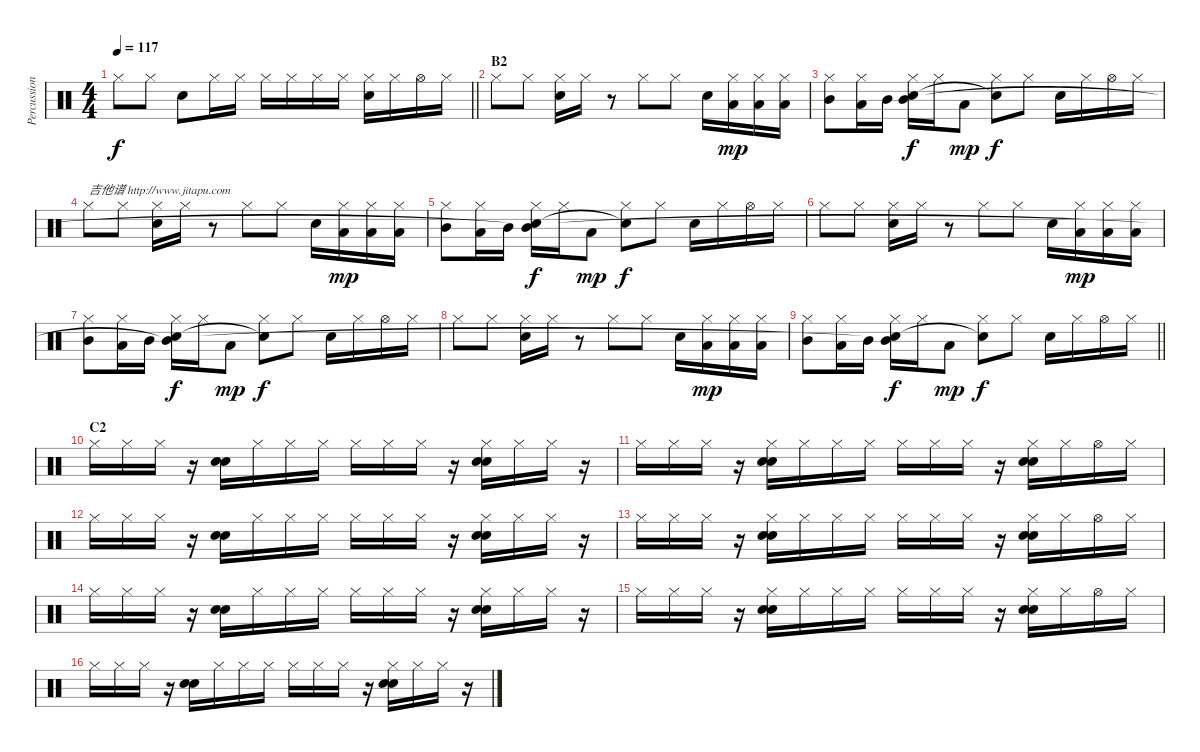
\track ("Percussions" "Percussion") {instrument percussion}
\staff {score}
\articulation defaults
\ts (4 4)
\tempo 117
\clef neutral
\barLineRight lightlight
\ks c "Hi-Hat (closed)".8{dy f} "Hi-Hat (closed)".8 "Electric Snare (hit)".8 "Hi-Hat (closed)".16 "Hi-Hat (closed)".16 "Hi-Hat (closed)".16 "Hi-Hat (closed)".16 "Hi-Hat (closed)".16 "Hi-Hat (closed)".16
("Hi-Hat (closed)" "Electric Snare (hit)").16 "Hi-Hat (closed)".16 "Hi-Hat (open)".16 "Hi-Hat (closed)".16 |
\section ("" "B2")
"Hi-Hat (closed)".8 "Hi-Hat (closed)".8 ("Hi-Hat (closed)" "Electric Snare (hit)").16 "Hi-Hat (closed)".16 r.8 "Hi-Hat (closed)".8 "Hi-Hat (closed)".8 "Electric Snare (hit)".16 ("Hi-Hat (closed)" "Low Tom (hit)").16{dy mp} ("Hi-Hat (closed)" "Low Tom (hit)").16 ("Hi-Hat (closed)" "Low Tom (hit)").16 |
("Hi-Hat (closed)" "Mid Tom (hit)").8 ("Hi-Hat (closed)" "Low Tom (hit)").16 "Mid Tom (hit)".16 ("Hi-Hat (closed)" "Electric Snare (hit)" "Mid Tom (hit)").16{dy f} "Hi-Hat (closed)".16 "Low Tom (hit)".8{dy mp} ("Hi-Hat (closed)" "Snare (hit)"{t}).8{dy f} "Hi-Hat (closed)".8 "Electric Snare (hit)".16 "Hi-Hat (closed)".16 "Hi-Hat (open)".16 "Hi-Hat (closed)".16 |
"Hi-Hat (closed)".8{txt "吉他谱 http://www.jitapu.com"} "Hi-Hat (closed)".8 ("Hi-Hat (closed)" "Electric Snare (hit)").16 "Hi-Hat (closed)".16 r.8 "Hi-Hat (closed)".8 "Hi-Hat (closed)".8 "Electric Snare (hit)".16 ("Hi-Hat (closed)" "Low Tom (hit)").16{dy mp} ("Hi-Hat (closed)" "Low Tom (hit)").16 ("Hi-Hat (closed)" "Low Tom (hit)").16 |
("Hi-Hat (closed)" "Mid Tom (hit)").8 ("Hi-Hat (closed)" "Low Tom (hit)").16 "Mid Tom (hit)".16 ("Hi-Hat (closed)" "Electric Snare (hit)" "Mid Tom (hit)"{t}).16{dy f} "Hi-Hat (closed)".16 "Low Tom (hit)".8{dy mp} ("Hi-Hat (closed)" "Snare (hit)"{t}).8{dy f} "Hi-Hat (closed)".8 "Electric Snare (hit)".16 "Hi-Hat (closed)".16 "Hi-Hat (open)".16 "Hi-Hat (closed)".16 |
"Hi-Hat (closed)".8 "Hi-Hat (closed)".8 ("Hi-Hat (closed)" "Electric Snare (hit)").16 "Hi-Hat (closed)".16 r.8 "Hi-Hat (closed)".8 "Hi-Hat (closed)".8 "Electric Snare (hit)".16 ("Hi-Hat (closed)" "Low Tom (hit)").16{dy mp} ("Hi-Hat (closed)" "Low Tom (hit)").16 ("Hi-Hat (closed)" "Low Tom (hit)").16 |
("Hi-Hat (closed)" "Mid Tom (hit)").8 ("Hi-Hat (closed)" "Low Tom (hit)").16 "Mid Tom (hit)".16 ("Hi-Hat (closed)" "Electric Snare (hit)" "Mid Tom (hit)"{t}).16{dy f} "Hi-Hat (closed)".16 "Low Tom (hit)".8{dy mp} ("Hi-Hat (closed)" "Snare (hit)"{t}).8{dy f} "Hi-Hat (closed)".8 "Electric Snare (hit)".16 "Hi-Hat (closed)".16 "Hi-Hat (open)".16 "Hi-Hat (closed)".16 |
"Hi-Hat (closed)".8 "Hi-Hat (closed)".8 ("Hi-Hat (closed)" "Electric Snare (hit)").16 "Hi-Hat (closed)".16 r.8 "Hi-Hat (closed)".8 "Hi-Hat (closed)".8 "Electric Snare (hit)".16 ("Hi-Hat (closed)" "Low Tom (hit)").16{dy mp} ("Hi-Hat (closed)" "Low Tom (hit)").16 ("Hi-Hat (closed)" "Low Tom (hit)").16 |
\barLineRight lightlight
("Hi-Hat (closed)" "Mid Tom (hit)").8 ("Hi-Hat (closed)" "Low Tom (hit)").16 "Mid Tom (hit)".16 ("Hi-Hat (closed)" "Electric Snare (hit)" "Mid Tom (hit)"{t}).16{dy f} "Hi-Hat (closed)".16 "Low Tom (hit)".8{dy mp} ("Hi-Hat (closed)" "Snare (hit)"{t}).8{dy f} "Hi-Hat (closed)".8 "Electric Snare (hit)".16 "Hi-Hat (closed)".16 "Hi-Hat (open)".16 "Hi-Hat (closed)".16 |
\section ("" "C2")
"Hi-Hat (closed)".16 "Hi-Hat (closed)".16 "Hi-Hat (closed)".16 r.16 ("Electric Snare (hit)" "Hand Clap (hit)").16 "Hi-Hat (closed)".16 "Hi-Hat (closed)".16 "Hi-Hat (closed)".16 "Hi-Hat (closed)".16 "Hi-Hat (closed)".16 "Hi-Hat (closed)".16 r.16 ("Hi-Hat (closed)" "Electric Snare (hit)" "Hand Clap (hit)").16 "Hi-Hat (closed)".16 "Hi-Hat (closed)".16 r.16 |
"Hi-Hat (closed)".16 "Hi-Hat (closed)".16 "Hi-Hat (closed)".16 r.16 ("Hi-Hat (closed)" "Electric Snare (hit)" "Hand Clap (hit)").16 "Hi-Hat (closed)".16 "Hi-Hat (closed)".16 "Hi-Hat (closed)".16 "Hi-Hat (closed)".16 "Hi-Hat (closed)".16 "Hi-Hat (closed)".16 r.16 ("Hi-Hat (closed)" "Hand Clap (hit)" "Electric Snare (hit)").16 "Hi-Hat (closed)".16 "Hi-Hat (open)".16 "Hi-Hat (closed)".16 |
"Hi-Hat (closed)".16 "Hi-Hat (closed)".16 "Hi-Hat (closed)".16 r.16 ("Electric Snare (hit)" "Hand Clap (hit)").16 "Hi-Hat (closed)".16 "Hi-Hat (closed)".16 "Hi-Hat (closed)".16 "Hi-Hat (closed)".16 "Hi-Hat (closed)".16 "Hi-Hat (closed)".16 r.16 ("Hi-Hat (closed)" "Electric Snare (hit)" "Hand Clap (hit)").16 "Hi-Hat (closed)".16 "Hi-Hat (closed)".16 r.16 |
"Hi-Hat (closed)".16 "Hi-Hat (closed)".16 "Hi-Hat (closed)".16 r.16 ("Hi-Hat (closed)" "Electric Snare (hit)" "Hand Clap (hit)").16 "Hi-Hat (closed)".16 "Hi-Hat (closed)".16 "Hi-Hat (closed)".16 "Hi-Hat (closed)".16 "Hi-Hat (closed)".16 "Hi-Hat (closed)".16 r.16 ("Hi-Hat (closed)" "Hand Clap (hit)" "Electric Snare (hit)").16 "Hi-Hat (closed)".16 "Hi-Hat (open)".16 "Hi-Hat (closed)".16 |
"Hi-Hat (closed)".16 "Hi-Hat (closed)".16 "Hi-Hat (closed)".16 r.16 ("Electric Snare (hit)" "Hand Clap (hit)").16 "Hi-Hat (closed)".16 "Hi-Hat (closed)".16 "Hi-Hat (closed)".16 "Hi-Hat (closed)".16 "Hi-Hat (closed)".16 "Hi-Hat (closed)".16 r.16 ("Hi-Hat (closed)" "Electric Snare (hit)" "Hand Clap (hit)").16 "Hi-Hat (closed)".16 "Hi-Hat (closed)".16 r.16 |
"Hi-Hat (closed)".16 "Hi-Hat (closed)".16 "Hi-Hat (closed)".16 r.16 ("Hi-Hat (closed)" "Electric Snare (hit)" "Hand Clap (hit)").16 "Hi-Hat (closed)".16 "Hi-Hat (closed)".16 "Hi-Hat (closed)".16 "Hi-Hat (closed)".16 "Hi-Hat (closed)".16 "Hi-Hat (closed)".16 r.16 ("Hi-Hat (closed)" "Hand Clap (hit)" "Electric Snare (hit)").16 "Hi-Hat (closed)".16 "Hi-Hat (open)".16 "Hi-Hat (closed)".16 |
"Hi-Hat (closed)".16 "Hi-Hat (closed)".16 "Hi-Hat (closed)".16 r.16 ("Electric Snare (hit)" "Hand Clap (hit)").16 "Hi-Hat (closed)".16 "Hi-Hat (closed)".16 "Hi-Hat (closed)".16 "Hi-Hat (closed)".16 "Hi-Hat (closed)".16 "Hi-Hat (closed)".16 r.16 ("Hi-Hat (closed)" "Electric Snare (hit)" "Hand Clap (hit)").16 "Hi-Hat (closed)".16 "Hi-Hat (closed)".16 r.16
